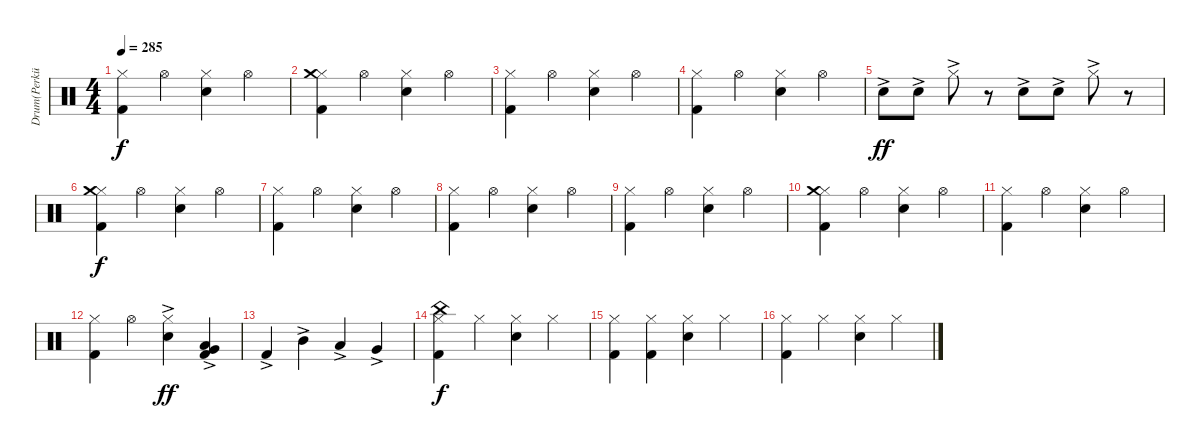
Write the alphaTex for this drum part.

\track ("Drum(Perküsyon)" "Drum(Perkü") {instrument percussion}
\staff {score}
\articulation defaults
\ts (4 4)
\tempo 285
\clef neutral
\ks c
("Hi-Hat (closed)" "Kick (hit) 2").4{dy f} "Hi-Hat (open)".4 ("Hi-Hat (closed)" "Electric Snare (hit)").4 "Hi-Hat (open)".4 |
("Hi-Hat (closed)" "Kick (hit) 2" "Crash medium (hit)").4 "Hi-Hat (open)".4 ("Hi-Hat (closed)" "Electric Snare (hit)").4 "Hi-Hat (open)".4 |
("Hi-Hat (closed)" "Kick (hit) 2").4 "Hi-Hat (open)".4 ("Hi-Hat (closed)" "Electric Snare (hit)").4 "Hi-Hat (open)".4 |
("Hi-Hat (closed)" "Kick (hit) 2").4 "Hi-Hat (open)".4 ("Hi-Hat (closed)" "Electric Snare (hit)").4 "Hi-Hat (open)".4 |
"Electric Snare (hit)"{ac}.8{dy ff} "Electric Snare (hit)"{ac}.8 "Hi-Hat (closed)"{ac}.8 r.8 "Electric Snare (hit)"{ac}.8 "Electric Snare (hit)"{ac}.8 "Hi-Hat (closed)"{ac}.8 r.8 |
("Hi-Hat (closed)" "Kick (hit) 2" "Crash medium (hit)").4{dy f} "Hi-Hat (open)".4 ("Hi-Hat (closed)" "Electric Snare (hit)").4 "Hi-Hat (open)".4 |
("Hi-Hat (closed)" "Kick (hit) 2").4 "Hi-Hat (open)".4 ("Hi-Hat (closed)" "Electric Snare (hit)").4 "Hi-Hat (open)".4 |
("Hi-Hat (closed)" "Kick (hit) 2").4 "Hi-Hat (open)".4 ("Hi-Hat (closed)" "Electric Snare (hit)").4 "Hi-Hat (open)".4 |
("Hi-Hat (closed)" "Kick (hit) 2").4 "Hi-Hat (open)".4 ("Hi-Hat (closed)" "Electric Snare (hit)").4 "Hi-Hat (open)".4 |
("Hi-Hat (closed)" "Kick (hit) 2" "Crash medium (hit)").4 "Hi-Hat (open)".4 ("Hi-Hat (closed)" "Electric Snare (hit)").4 "Hi-Hat (open)".4 |
("Hi-Hat (closed)" "Kick (hit) 2").4 "Hi-Hat (open)".4 ("Hi-Hat (closed)" "Electric Snare (hit)").4 "Hi-Hat (open)".4 |
("Hi-Hat (closed)" "Kick (hit) 2").4 "Hi-Hat (open)".4 ("Hi-Hat (closed)" "Electric Snare (hit)"{ac}).4{dy ff} ("Very Low Tom (hit)"{ac} "Kick (hit) 2"{ac} "Low Tom (hit)"{ac}).4 |
"Kick (hit) 2"{ac}.4 "Mid Tom (hit)"{ac}.4 "Low Tom (hit)"{ac}.4 "Very Low Tom (hit)"{ac}.4 |
("Hi-Hat (closed)" "Kick (hit) 2" "China (hit)").4{dy f} "Hi-Hat (closed)".4 ("Hi-Hat (closed)" "Electric Snare (hit)").4 "Hi-Hat (closed)".4 |
("Hi-Hat (closed)" "Kick (hit) 2").4 ("Hi-Hat (closed)" "Kick (hit) 2").4 ("Hi-Hat (closed)" "Electric Snare (hit)").4 "Hi-Hat (closed)".4 |
("Hi-Hat (closed)" "Kick (hit) 2").4 "Hi-Hat (closed)".4 ("Hi-Hat (closed)" "Electric Snare (hit)").4 "Hi-Hat (closed)".4
